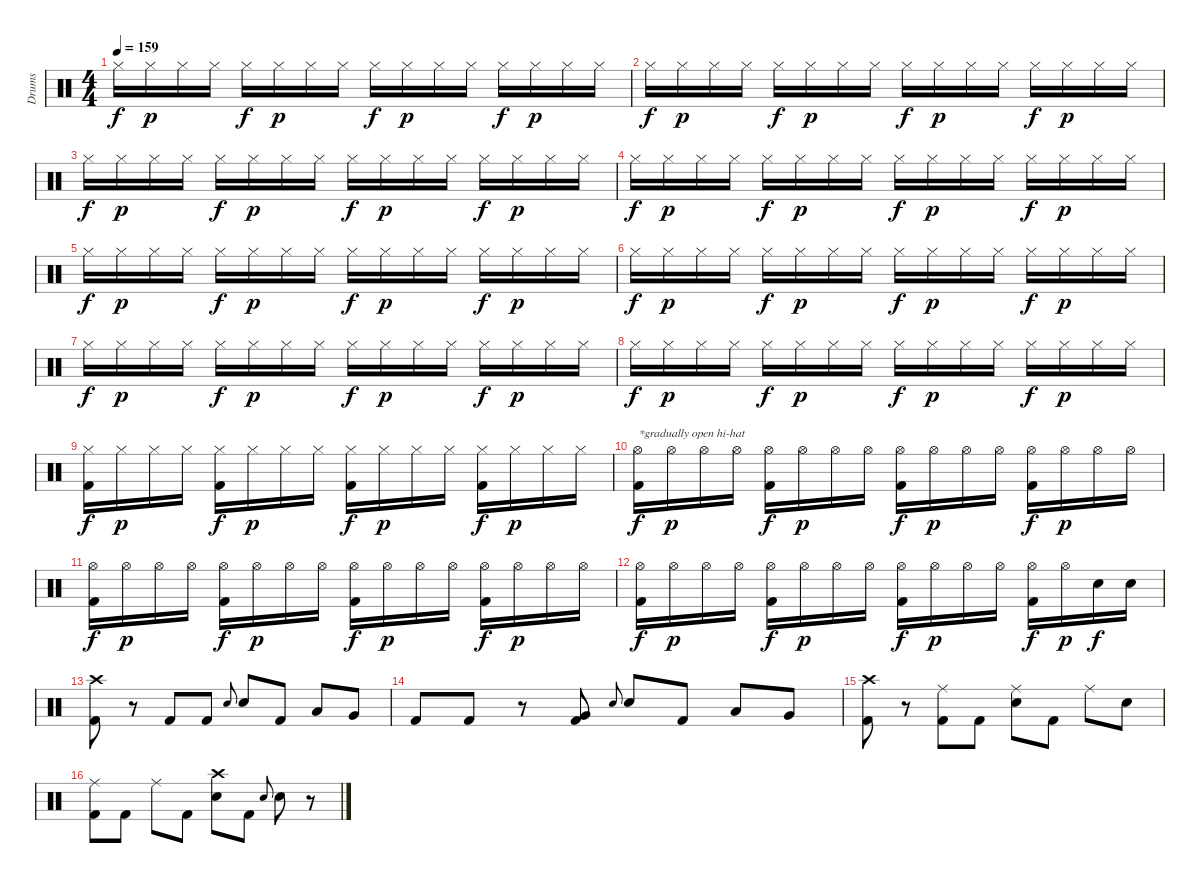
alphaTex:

\track ("Drums" "Drums") {instrument percussion}
\staff {score}
\articulation defaults
\ts (4 4)
\tempo 159
\clef neutral
\ks c "Hi-Hat (closed)".16{dy f} "Hi-Hat (closed)".16{dy p} "Hi-Hat (closed)".16 "Hi-Hat (closed)".16 "Hi-Hat (closed)".16{dy f} "Hi-Hat (closed)".16{dy p} "Hi-Hat (closed)".16 "Hi-Hat (closed)".16 "Hi-Hat (closed)".16{dy f} "Hi-Hat (closed)".16{dy p} "Hi-Hat (closed)".16 "Hi-Hat (closed)".16 "Hi-Hat (closed)".16{dy f} "Hi-Hat (closed)".16{dy p} "Hi-Hat (closed)".16 "Hi-Hat (closed)".16
|
"Hi-Hat (closed)".16{dy f} "Hi-Hat (closed)".16{dy p} "Hi-Hat (closed)".16 "Hi-Hat (closed)".16 "Hi-Hat (closed)".16{dy f} "Hi-Hat (closed)".16{dy p} "Hi-Hat (closed)".16 "Hi-Hat (closed)".16 "Hi-Hat (closed)".16{dy f} "Hi-Hat (closed)".16{dy p} "Hi-Hat (closed)".16 "Hi-Hat (closed)".16 "Hi-Hat (closed)".16{dy f} "Hi-Hat (closed)".16{dy p} "Hi-Hat (closed)".16 "Hi-Hat (closed)".16 |
"Hi-Hat (closed)".16{dy f} "Hi-Hat (closed)".16{dy p} "Hi-Hat (closed)".16 "Hi-Hat (closed)".16 "Hi-Hat (closed)".16{dy f} "Hi-Hat (closed)".16{dy p} "Hi-Hat (closed)".16 "Hi-Hat (closed)".16 "Hi-Hat (closed)".16{dy f} "Hi-Hat (closed)".16{dy p} "Hi-Hat (closed)".16 "Hi-Hat (closed)".16 "Hi-Hat (closed)".16{dy f} "Hi-Hat (closed)".16{dy p} "Hi-Hat (closed)".16 "Hi-Hat (closed)".16 |
"Hi-Hat (closed)".16{dy f} "Hi-Hat (closed)".16{dy p} "Hi-Hat (closed)".16 "Hi-Hat (closed)".16 "Hi-Hat (closed)".16{dy f} "Hi-Hat (closed)".16{dy p} "Hi-Hat (closed)".16 "Hi-Hat (closed)".16 "Hi-Hat (closed)".16{dy f} "Hi-Hat (closed)".16{dy p} "Hi-Hat (closed)".16 "Hi-Hat (closed)".16 "Hi-Hat (closed)".16{dy f} "Hi-Hat (closed)".16{dy p} "Hi-Hat (closed)".16 "Hi-Hat (closed)".16 |
"Hi-Hat (closed)".16{dy f} "Hi-Hat (closed)".16{dy p} "Hi-Hat (closed)".16 "Hi-Hat (closed)".16 "Hi-Hat (closed)".16{dy f} "Hi-Hat (closed)".16{dy p} "Hi-Hat (closed)".16 "Hi-Hat (closed)".16 "Hi-Hat (closed)".16{dy f} "Hi-Hat (closed)".16{dy p} "Hi-Hat (closed)".16 "Hi-Hat (closed)".16 "Hi-Hat (closed)".16{dy f} "Hi-Hat (closed)".16{dy p} "Hi-Hat (closed)".16 "Hi-Hat (closed)".16 |
"Hi-Hat (closed)".16{dy f} "Hi-Hat (closed)".16{dy p} "Hi-Hat (closed)".16 "Hi-Hat (closed)".16 "Hi-Hat (closed)".16{dy f} "Hi-Hat (closed)".16{dy p} "Hi-Hat (closed)".16 "Hi-Hat (closed)".16 "Hi-Hat (closed)".16{dy f} "Hi-Hat (closed)".16{dy p} "Hi-Hat (closed)".16 "Hi-Hat (closed)".16 "Hi-Hat (closed)".16{dy f} "Hi-Hat (closed)".16{dy p} "Hi-Hat (closed)".16 "Hi-Hat (closed)".16 |
"Hi-Hat (closed)".16{dy f} "Hi-Hat (closed)".16{dy p} "Hi-Hat (closed)".16 "Hi-Hat (closed)".16 "Hi-Hat (closed)".16{dy f} "Hi-Hat (closed)".16{dy p} "Hi-Hat (closed)".16 "Hi-Hat (closed)".16 "Hi-Hat (closed)".16{dy f} "Hi-Hat (closed)".16{dy p} "Hi-Hat (closed)".16 "Hi-Hat (closed)".16 "Hi-Hat (closed)".16{dy f} "Hi-Hat (closed)".16{dy p} "Hi-Hat (closed)".16 "Hi-Hat (closed)".16 |
"Hi-Hat (closed)".16{dy f} "Hi-Hat (closed)".16{dy p} "Hi-Hat (closed)".16 "Hi-Hat (closed)".16 "Hi-Hat (closed)".16{dy f} "Hi-Hat (closed)".16{dy p} "Hi-Hat (closed)".16 "Hi-Hat (closed)".16 "Hi-Hat (closed)".16{dy f} "Hi-Hat (closed)".16{dy p} "Hi-Hat (closed)".16 "Hi-Hat (closed)".16 "Hi-Hat (closed)".16{dy f} "Hi-Hat (closed)".16{dy p} "Hi-Hat (closed)".16 "Hi-Hat (closed)".16 |
("Hi-Hat (closed)" "Kick (hit) 2").16{dy f} "Hi-Hat (closed)".16{dy p} "Hi-Hat (closed)".16 "Hi-Hat (closed)".16 ("Hi-Hat (closed)" "Kick (hit) 2").16{dy f} "Hi-Hat (closed)".16{dy p} "Hi-Hat (closed)".16 "Hi-Hat (closed)".16 ("Hi-Hat (closed)" "Kick (hit) 2").16{dy f} "Hi-Hat (closed)".16{dy p} "Hi-Hat (closed)".16 "Hi-Hat (closed)".16 ("Hi-Hat (closed)" "Kick (hit) 2").16{dy f} "Hi-Hat (closed)".16{dy p} "Hi-Hat (closed)".16 "Hi-Hat (closed)".16 |
("Hi-Hat (open)" "Kick (hit) 2").16{txt "*gradually open hi-hat" dy f} "Hi-Hat (open)".16{dy p} "Hi-Hat (open)".16 "Hi-Hat (open)".16 ("Hi-Hat (open)" "Kick (hit) 2").16{dy f} "Hi-Hat (open)".16{dy p} "Hi-Hat (open)".16 "Hi-Hat (open)".16 ("Hi-Hat (open)" "Kick (hit) 2").16{dy f} "Hi-Hat (open)".16{dy p} "Hi-Hat (open)".16 "Hi-Hat (open)".16 ("Hi-Hat (open)" "Kick (hit) 2").16{dy f} "Hi-Hat (open)".16{dy p} "Hi-Hat (open)".16 "Hi-Hat (open)".16 |
("Hi-Hat (open)" "Kick (hit) 2").16{dy f} "Hi-Hat (open)".16{dy p} "Hi-Hat (open)".16 "Hi-Hat (open)".16 ("Hi-Hat (open)" "Kick (hit) 2").16{dy f} "Hi-Hat (open)".16{dy p} "Hi-Hat (open)".16 "Hi-Hat (open)".16 ("Hi-Hat (open)" "Kick (hit) 2").16{dy f} "Hi-Hat (open)".16{dy p} "Hi-Hat (open)".16 "Hi-Hat (open)".16 ("Hi-Hat (open)" "Kick (hit) 2").16{dy f} "Hi-Hat (open)".16{dy p} "Hi-Hat (open)".16 "Hi-Hat (open)".16 |
("Hi-Hat (open)" "Kick (hit) 2").16{dy f} "Hi-Hat (open)".16{dy p} "Hi-Hat (open)".16 "Hi-Hat (open)".16 ("Hi-Hat (open)" "Kick (hit) 2").16{dy f} "Hi-Hat (open)".16{dy p} "Hi-Hat (open)".16 "Hi-Hat (open)".16 ("Hi-Hat (open)" "Kick (hit) 2").16{dy f} "Hi-Hat (open)".16{dy p} "Hi-Hat (open)".16 "Hi-Hat (open)".16 ("Hi-Hat (open)" "Kick (hit) 2").16{dy f} "Hi-Hat (open)".16{dy p} "Electric Snare (hit)".16{dy f} "Electric Snare (hit)".16 |
("Crash high (hit)" "Kick (hit) 2").8 r.8 "Kick (hit) 2".8 "Kick (hit) 2".8 "Electric Snare (hit)".8{gr onbeat} "Electric Snare (hit)".8 "Kick (hit) 2".8 "Low Tom (hit)".8 "Very Low Tom (hit)".8 |
"Kick (hit) 2".8 "Kick (hit) 2".8 r.8 ("Very Low Tom (hit)" "Kick (hit) 2").8 "Electric Snare (hit)".8{gr onbeat} "Electric Snare (hit)".8 "Kick (hit) 2".8 "Low Tom (hit)".8 "Very Low Tom (hit)".8 |
("Crash high (hit)" "Kick (hit) 2").8 r.8 ("Ride (middle)" "Kick (hit) 2").8 "Kick (hit) 2".8 ("Ride (middle)" "Electric Snare (hit)").8 "Kick (hit) 2".8 "Ride (middle)".8 "Electric Snare (hit)".8 |
("Ride (middle)" "Kick (hit) 2").8 "Kick (hit) 2".8 "Ride (middle)".8 "Kick (hit) 2".8 ("Crash high (hit)" "Electric Snare (hit)").8 "Kick (hit) 2".8 "Electric Snare (hit)".8{gr onbeat} "Electric Snare (hit)".8 r.8
